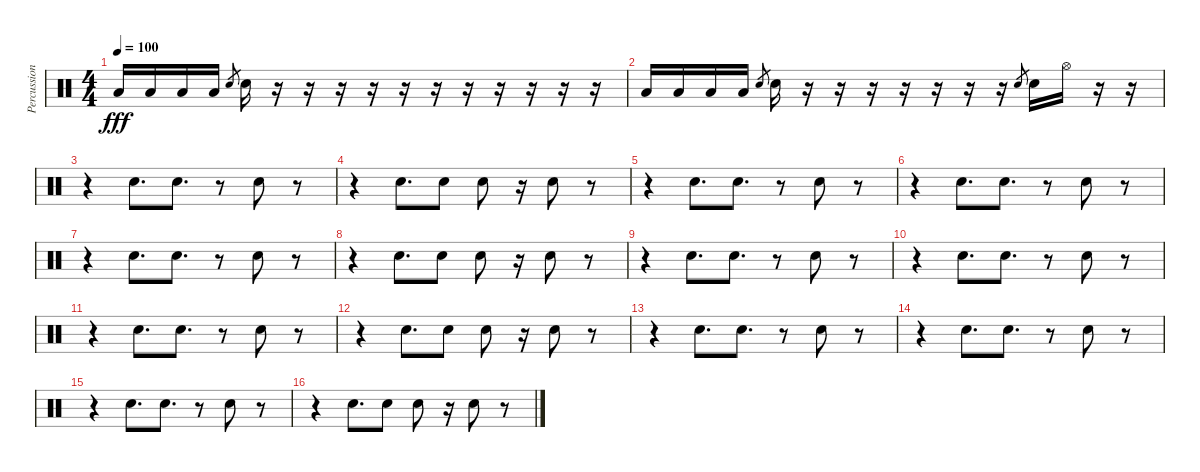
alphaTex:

\track ("Percussion" "Percussion") {instrument percussion}
\staff {score}
\articulation defaults
\ts (4 4)
\tempo 100
\clef neutral
\ks c "Low Floor Tom (hit)".16{dy fff} "Low Floor Tom (hit)".16 "Low Floor Tom (hit)".16 "Low Floor Tom (hit)".16 "Snare (hit) 2".8{gr} "Snare (hit) 2".16
r.16 r.16 r.16 r.16 r.16 r.16 r.16 r.16 r.16 r.16 r.16 |
"Low Floor Tom (hit)".16 "Low Floor Tom (hit)".16 "Low Floor Tom (hit)".16 "Low Floor Tom (hit)".16 "Snare (hit) 2".8{gr} "Snare (hit) 2".16 r.16 r.16 r.16 r.16 r.16 r.16 r.16 "Snare (hit) 2".8{gr} "Snare (hit) 2".16 "Hi-Hat (open)".16 r.16 r.16 |
r.4 "Snare (hit) 2".8{d} "Snare (hit) 2".8{d} r.8 "Snare (hit) 2".8 r.8 |
r.4 "Snare (hit) 2".8{d} "Snare (hit) 2".8 "Snare (hit) 2".8 r.16 "Snare (hit) 2".8 r.8 |
r.4 "Snare (hit) 2".8{d} "Snare (hit) 2".8{d} r.8 "Snare (hit) 2".8 r.8 |
r.4 "Snare (hit) 2".8{d} "Snare (hit) 2".8{d} r.8 "Snare (hit) 2".8 r.8 |
r.4 "Snare (hit) 2".8{d} "Snare (hit) 2".8{d} r.8 "Snare (hit) 2".8 r.8 |
r.4 "Snare (hit) 2".8{d} "Snare (hit) 2".8 "Snare (hit) 2".8 r.16 "Snare (hit) 2".8 r.8 |
r.4 "Snare (hit) 2".8{d} "Snare (hit) 2".8{d} r.8 "Snare (hit) 2".8 r.8 |
r.4 "Snare (hit) 2".8{d} "Snare (hit) 2".8{d} r.8 "Snare (hit) 2".8 r.8 |
r.4 "Snare (hit) 2".8{d} "Snare (hit) 2".8{d} r.8 "Snare (hit) 2".8 r.8 |
r.4 "Snare (hit) 2".8{d} "Snare (hit) 2".8 "Snare (hit) 2".8 r.16 "Snare (hit) 2".8 r.8 |
r.4 "Snare (hit) 2".8{d} "Snare (hit) 2".8{d} r.8 "Snare (hit) 2".8 r.8 |
r.4 "Snare (hit) 2".8{d} "Snare (hit) 2".8{d} r.8 "Snare (hit) 2".8 r.8 |
r.4 "Snare (hit) 2".8{d} "Snare (hit) 2".8{d} r.8 "Snare (hit) 2".8 r.8 |
r.4 "Snare (hit) 2".8{d} "Snare (hit) 2".8 "Snare (hit) 2".8 r.16 "Snare (hit) 2".8 r.8
